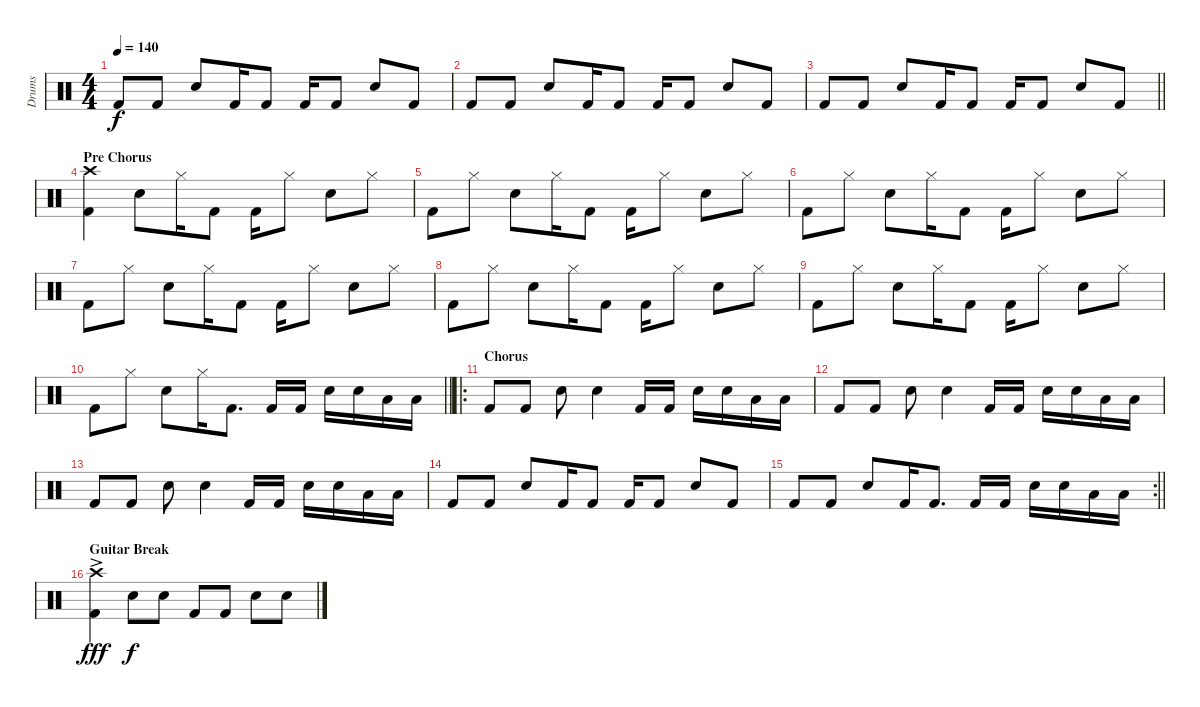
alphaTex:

\track ("Drums" "Drums") {instrument percussion}
\staff {score}
\articulation defaults
\ts (4 4)
\tempo 140
\clef neutral
\ks c "Kick (hit) 2".8{dy f} "Kick (hit) 2".8 "Snare (hit) 2".8 "Kick (hit) 2".16 "Kick (hit) 2".8 "Kick (hit) 2".16 "Kick (hit) 2".8 "Snare (hit) 2".8 "Kick (hit) 2".8
|
"Kick (hit) 2".8 "Kick (hit) 2".8 "Snare (hit) 2".8 "Kick (hit) 2".16 "Kick (hit) 2".8 "Kick (hit) 2".16 "Kick (hit) 2".8 "Snare (hit) 2".8 "Kick (hit) 2".8 |
\barLineRight lightlight "Kick (hit) 2".8 "Kick (hit) 2".8 "Snare (hit) 2".8 "Kick (hit) 2".16 "Kick (hit) 2".8 "Kick (hit) 2".16 "Kick (hit) 2".8 "Snare (hit) 2".8 "Kick (hit) 2".8
|
\section ("" "Pre Chorus")
("Crash high (hit)" "Kick (hit) 2").4 "Snare (hit) 2".8 "Hi-Hat (closed)".16 "Kick (hit) 2".8 "Kick (hit) 2".16 "Hi-Hat (closed)".8 "Snare (hit) 2".8 "Hi-Hat (closed)".8 |
"Kick (hit) 2".8 "Hi-Hat (closed)".8 "Snare (hit) 2".8 "Hi-Hat (closed)".16 "Kick (hit) 2".8 "Kick (hit) 2".16 "Hi-Hat (closed)".8 "Snare (hit) 2".8 "Hi-Hat (closed)".8 |
"Kick (hit) 2".8 "Hi-Hat (closed)".8 "Snare (hit) 2".8 "Hi-Hat (closed)".16 "Kick (hit) 2".8 "Kick (hit) 2".16 "Hi-Hat (closed)".8 "Snare (hit) 2".8 "Hi-Hat (closed)".8 |
"Kick (hit) 2".8 "Hi-Hat (closed)".8 "Snare (hit) 2".8 "Hi-Hat (closed)".16 "Kick (hit) 2".8 "Kick (hit) 2".16 "Hi-Hat (closed)".8 "Snare (hit) 2".8 "Hi-Hat (closed)".8 |
"Kick (hit) 2".8 "Hi-Hat (closed)".8 "Snare (hit) 2".8 "Hi-Hat (closed)".16 "Kick (hit) 2".8 "Kick (hit) 2".16 "Hi-Hat (closed)".8 "Snare (hit) 2".8 "Hi-Hat (closed)".8 |
"Kick (hit) 2".8 "Hi-Hat (closed)".8 "Snare (hit) 2".8 "Hi-Hat (closed)".16 "Kick (hit) 2".8 "Kick (hit) 2".16 "Hi-Hat (closed)".8 "Snare (hit) 2".8 "Hi-Hat (closed)".8 |
\barLineRight lightlight "Kick (hit) 2".8 "Hi-Hat (closed)".8 "Snare (hit) 2".8 "Hi-Hat (closed)".16 "Kick (hit) 2".8{d} "Kick (hit) 2".16 "Kick (hit) 2".16 "Snare (hit) 2".16 "Snare (hit) 2".16 "Low Floor Tom (hit)".16 "Low Floor Tom (hit)".16
|
\ro
\section ("" "Chorus")
"Kick (hit) 2".8 "Kick (hit) 2".8 "Snare (hit) 2".8 "Snare (hit) 2".4 "Kick (hit) 2".16 "Kick (hit) 2".16 "Snare (hit) 2".16 "Snare (hit) 2".16 "Low Floor Tom (hit)".16 "Low Floor Tom (hit)".16 |
"Kick (hit) 2".8 "Kick (hit) 2".8 "Snare (hit) 2".8 "Snare (hit) 2".4 "Kick (hit) 2".16 "Kick (hit) 2".16 "Snare (hit) 2".16 "Snare (hit) 2".16 "Low Floor Tom (hit)".16 "Low Floor Tom (hit)".16 |
"Kick (hit) 2".8 "Kick (hit) 2".8 "Snare (hit) 2".8 "Snare (hit) 2".4 "Kick (hit) 2".16 "Kick (hit) 2".16 "Snare (hit) 2".16 "Snare (hit) 2".16 "Low Floor Tom (hit)".16 "Low Floor Tom (hit)".16 |
"Kick (hit) 2".8 "Kick (hit) 2".8 "Snare (hit) 2".8 "Kick (hit) 2".16 "Kick (hit) 2".8 "Kick (hit) 2".16 "Kick (hit) 2".8 "Snare (hit) 2".8 "Kick (hit) 2".8 |
\rc 2
\barLineRight lightlight "Kick (hit) 2".8 "Kick (hit) 2".8 "Snare (hit) 2".8 "Kick (hit) 2".16 "Kick (hit) 2".8{d} "Kick (hit) 2".16 "Kick (hit) 2".16 "Snare (hit) 2".16 "Snare (hit) 2".16 "Low Floor Tom (hit)".16 "Low Floor Tom (hit)".16
|
\section ("" "Guitar Break")
("Crash high (hit)"{ac} "Kick (hit) 2"{ac}).4{dy fff} "Snare (hit) 2".8{dy f} "Snare (hit) 2".8 "Kick (hit) 2".8 "Kick (hit) 2".8 "Snare (hit) 2".8 "Snare (hit) 2".8
